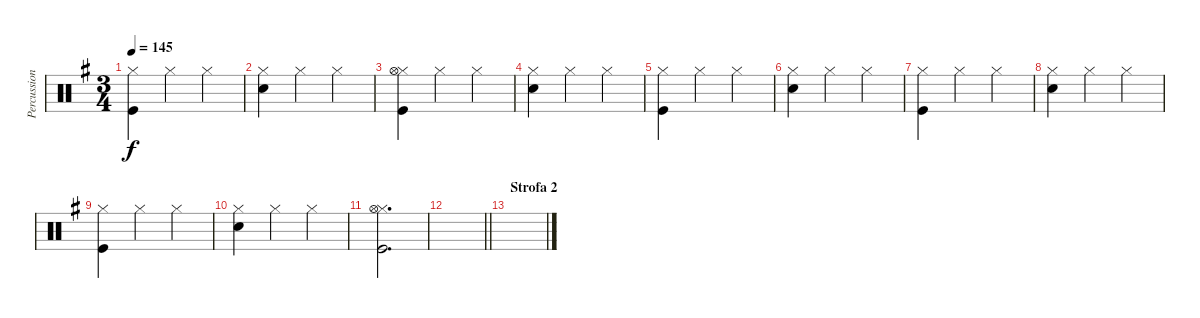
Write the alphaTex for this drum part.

\track ("Percussioni" "Percussion") {instrument percussion}
\staff {score}
\articulation defaults
\ts (3 4)
\tempo 145
\clef neutral
\ks g
("Hi-Hat (closed)" "Kick (hit)").4{dy f} "Hi-Hat (closed)".4 "Hi-Hat (closed)".4 |
("Hi-Hat (closed)" "Snare (hit) 2").4 "Hi-Hat (closed)".4 "Hi-Hat (closed)".4 |
("Hi-Hat (closed)" "Kick (hit)" "Hi-Hat (open)").4 "Hi-Hat (closed)".4 "Hi-Hat (closed)".4 |
("Hi-Hat (closed)" "Snare (hit) 2").4 "Hi-Hat (closed)".4 "Hi-Hat (closed)".4 |
("Hi-Hat (closed)" "Kick (hit)").4 "Hi-Hat (closed)".4 "Hi-Hat (closed)".4 |
("Hi-Hat (closed)" "Snare (hit) 2").4 "Hi-Hat (closed)".4 "Hi-Hat (closed)".4 |
("Hi-Hat (closed)" "Kick (hit)").4 "Hi-Hat (closed)".4 "Hi-Hat (closed)".4 |
("Hi-Hat (closed)" "Snare (hit) 2").4 "Hi-Hat (closed)".4 "Hi-Hat (closed)".4 |
("Hi-Hat (closed)" "Kick (hit)").4 "Hi-Hat (closed)".4 "Hi-Hat (closed)".4 |
("Hi-Hat (closed)" "Snare (hit) 2").4 "Hi-Hat (closed)".4 "Hi-Hat (closed)".4 |
("Hi-Hat (closed)" "Kick (hit)" "Hi-Hat (open)").2{d} |
\barLineRight lightlight
|
\section ("" "Strofa 2")
